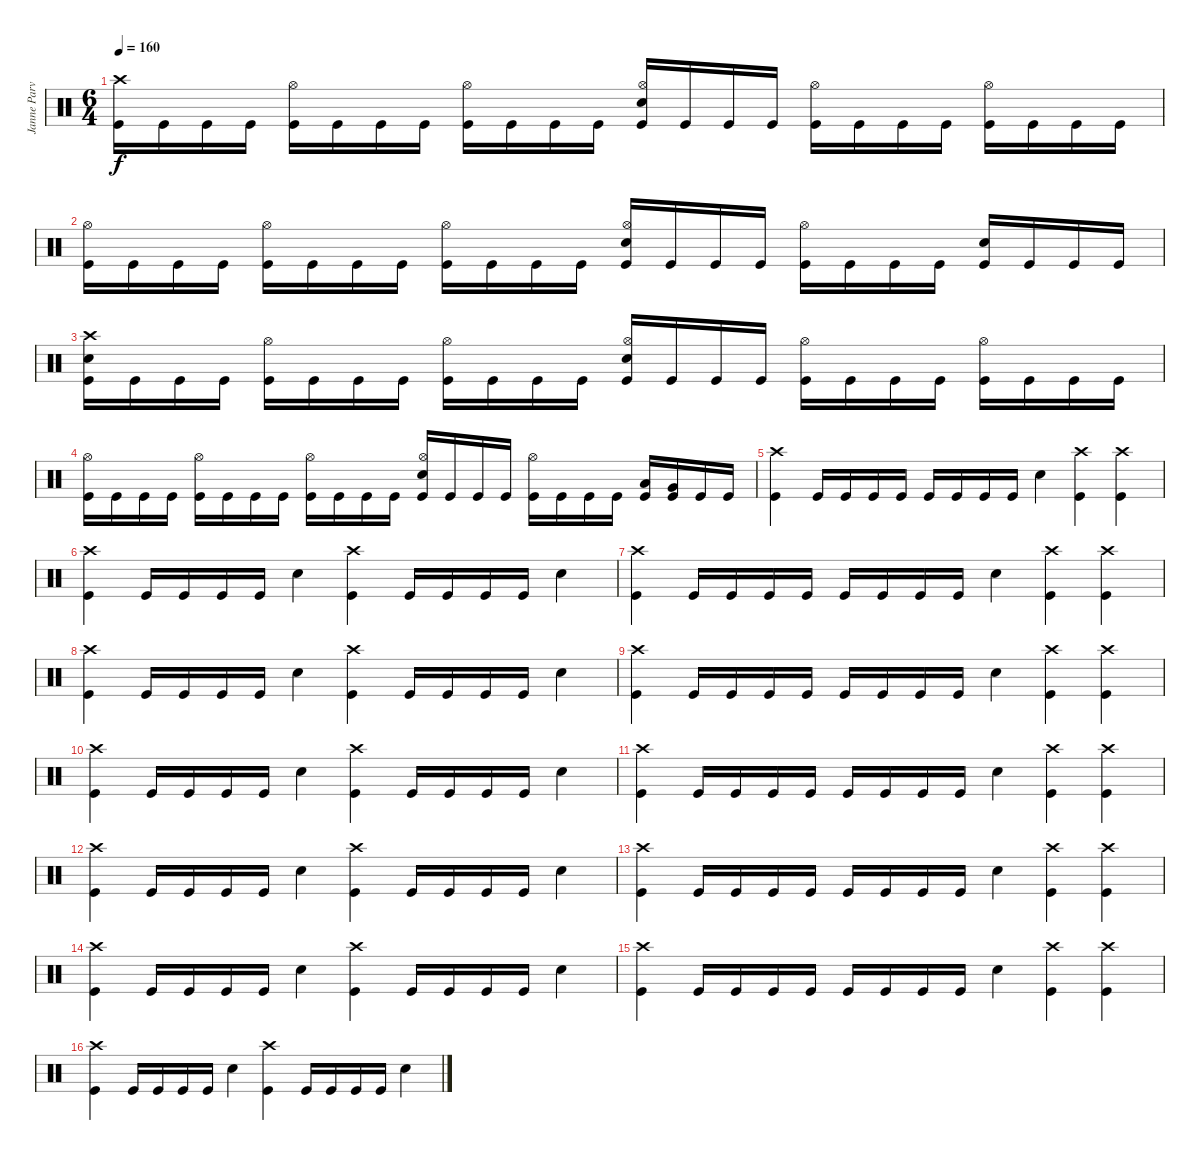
\track ("Janne Parviainen" "Janne Parv") {instrument percussion}
\staff {score}
\articulation defaults
\ts (6 4)
\tempo 160
\clef neutral
\ks c
("Crash high (hit)" "Kick (hit)").16{dy f} "Kick (hit)".16 "Kick (hit)".16 "Kick (hit)".16 ("Hi-Hat (open)" "Kick (hit)").16 "Kick (hit)".16 "Kick (hit)".16 "Kick (hit)".16 ("Hi-Hat (open)" "Kick (hit)").16 "Kick (hit)".16 "Kick (hit)".16 "Kick (hit)".16 ("Hi-Hat (open)" "Electric Snare (hit)" "Kick (hit)").16 "Kick (hit)".16 "Kick (hit)".16 "Kick (hit)".16 ("Hi-Hat (open)" "Kick (hit)").16 "Kick (hit)".16 "Kick (hit)".16 "Kick (hit)".16 ("Hi-Hat (open)" "Kick (hit)").16 "Kick (hit)".16 "Kick (hit)".16 "Kick (hit)".16 |
("Hi-Hat (open)" "Kick (hit)").16 "Kick (hit)".16 "Kick (hit)".16 "Kick (hit)".16 ("Hi-Hat (open)" "Kick (hit)").16 "Kick (hit)".16 "Kick (hit)".16 "Kick (hit)".16 ("Hi-Hat (open)" "Kick (hit)").16 "Kick (hit)".16 "Kick (hit)".16 "Kick (hit)".16 ("Hi-Hat (open)" "Electric Snare (hit)" "Kick (hit)").16 "Kick (hit)".16 "Kick (hit)".16 "Kick (hit)".16 ("Hi-Hat (open)" "Kick (hit)").16 "Kick (hit)".16 "Kick (hit)".16 "Kick (hit)".16 ("Electric Snare (hit)" "Kick (hit)").16 "Kick (hit)".16 "Kick (hit)".16 "Kick (hit)".16 |
("Crash high (hit)" "Electric Snare (hit)" "Kick (hit)").16 "Kick (hit)".16 "Kick (hit)".16 "Kick (hit)".16 ("Hi-Hat (open)" "Kick (hit)").16 "Kick (hit)".16 "Kick (hit)".16 "Kick (hit)".16 ("Hi-Hat (open)" "Kick (hit)").16 "Kick (hit)".16 "Kick (hit)".16 "Kick (hit)".16 ("Hi-Hat (open)" "Electric Snare (hit)" "Kick (hit)").16 "Kick (hit)".16 "Kick (hit)".16 "Kick (hit)".16 ("Hi-Hat (open)" "Kick (hit)").16 "Kick (hit)".16 "Kick (hit)".16 "Kick (hit)".16 ("Hi-Hat (open)" "Kick (hit)").16 "Kick (hit)".16 "Kick (hit)".16 "Kick (hit)".16 |
("Hi-Hat (open)" "Kick (hit)").16 "Kick (hit)".16 "Kick (hit)".16 "Kick (hit)".16 ("Hi-Hat (open)" "Kick (hit)").16 "Kick (hit)".16 "Kick (hit)".16 "Kick (hit)".16 ("Hi-Hat (open)" "Kick (hit)").16 "Kick (hit)".16 "Kick (hit)".16 "Kick (hit)".16 ("Hi-Hat (open)" "Electric Snare (hit)" "Kick (hit)").16 "Kick (hit)".16 "Kick (hit)".16 "Kick (hit)".16 ("Hi-Hat (open)" "Kick (hit)").16 "Kick (hit)".16 "Kick (hit)".16 "Kick (hit)".16 ("Low Tom (hit)" "Kick (hit)").16 ("Very Low Tom (hit)" "Kick (hit)").16 "Kick (hit)".16 "Kick (hit)".16 |
("Crash high (hit)" "Kick (hit)").4 "Kick (hit)".16 "Kick (hit)".16 "Kick (hit)".16 "Kick (hit)".16 "Kick (hit)".16 "Kick (hit)".16 "Kick (hit)".16 "Kick (hit)".16 "Electric Snare (hit)".4 ("Crash high (hit)" "Kick (hit)").4 ("Crash high (hit)" "Kick (hit)").4 |
("Crash high (hit)" "Kick (hit)").4 "Kick (hit)".16 "Kick (hit)".16 "Kick (hit)".16 "Kick (hit)".16 "Electric Snare (hit)".4 ("Crash high (hit)" "Kick (hit)").4 "Kick (hit)".16 "Kick (hit)".16 "Kick (hit)".16 "Kick (hit)".16 "Electric Snare (hit)".4 |
("Crash high (hit)" "Kick (hit)").4 "Kick (hit)".16 "Kick (hit)".16 "Kick (hit)".16 "Kick (hit)".16 "Kick (hit)".16 "Kick (hit)".16 "Kick (hit)".16 "Kick (hit)".16 "Electric Snare (hit)".4 ("Crash high (hit)" "Kick (hit)").4 ("Crash high (hit)" "Kick (hit)").4 |
("Crash high (hit)" "Kick (hit)").4 "Kick (hit)".16 "Kick (hit)".16 "Kick (hit)".16 "Kick (hit)".16 "Electric Snare (hit)".4 ("Crash high (hit)" "Kick (hit)").4 "Kick (hit)".16 "Kick (hit)".16 "Kick (hit)".16 "Kick (hit)".16 "Electric Snare (hit)".4 |
("Crash high (hit)" "Kick (hit)").4 "Kick (hit)".16 "Kick (hit)".16 "Kick (hit)".16 "Kick (hit)".16 "Kick (hit)".16 "Kick (hit)".16 "Kick (hit)".16 "Kick (hit)".16 "Electric Snare (hit)".4 ("Crash high (hit)" "Kick (hit)").4 ("Crash high (hit)" "Kick (hit)").4 |
("Crash high (hit)" "Kick (hit)").4 "Kick (hit)".16 "Kick (hit)".16 "Kick (hit)".16 "Kick (hit)".16 "Electric Snare (hit)".4 ("Crash high (hit)" "Kick (hit)").4 "Kick (hit)".16 "Kick (hit)".16 "Kick (hit)".16 "Kick (hit)".16 "Electric Snare (hit)".4 |
("Crash high (hit)" "Kick (hit)").4 "Kick (hit)".16 "Kick (hit)".16 "Kick (hit)".16 "Kick (hit)".16 "Kick (hit)".16 "Kick (hit)".16 "Kick (hit)".16 "Kick (hit)".16 "Electric Snare (hit)".4 ("Crash high (hit)" "Kick (hit)").4 ("Crash high (hit)" "Kick (hit)").4 |
("Crash high (hit)" "Kick (hit)").4 "Kick (hit)".16 "Kick (hit)".16 "Kick (hit)".16 "Kick (hit)".16 "Electric Snare (hit)".4 ("Crash high (hit)" "Kick (hit)").4 "Kick (hit)".16 "Kick (hit)".16 "Kick (hit)".16 "Kick (hit)".16 "Electric Snare (hit)".4 |
("Crash high (hit)" "Kick (hit)").4 "Kick (hit)".16 "Kick (hit)".16 "Kick (hit)".16 "Kick (hit)".16 "Kick (hit)".16 "Kick (hit)".16 "Kick (hit)".16 "Kick (hit)".16 "Electric Snare (hit)".4 ("Crash high (hit)" "Kick (hit)").4 ("Crash high (hit)" "Kick (hit)").4 |
("Crash high (hit)" "Kick (hit)").4 "Kick (hit)".16 "Kick (hit)".16 "Kick (hit)".16 "Kick (hit)".16 "Electric Snare (hit)".4 ("Crash high (hit)" "Kick (hit)").4 "Kick (hit)".16 "Kick (hit)".16 "Kick (hit)".16 "Kick (hit)".16 "Electric Snare (hit)".4 |
("Crash high (hit)" "Kick (hit)").4 "Kick (hit)".16 "Kick (hit)".16 "Kick (hit)".16 "Kick (hit)".16 "Kick (hit)".16 "Kick (hit)".16 "Kick (hit)".16 "Kick (hit)".16 "Electric Snare (hit)".4 ("Crash high (hit)" "Kick (hit)").4 ("Crash high (hit)" "Kick (hit)").4 |
("Crash high (hit)" "Kick (hit)").4 "Kick (hit)".16 "Kick (hit)".16 "Kick (hit)".16 "Kick (hit)".16 "Electric Snare (hit)".4 ("Crash high (hit)" "Kick (hit)").4 "Kick (hit)".16 "Kick (hit)".16 "Kick (hit)".16 "Kick (hit)".16 "Electric Snare (hit)".4
